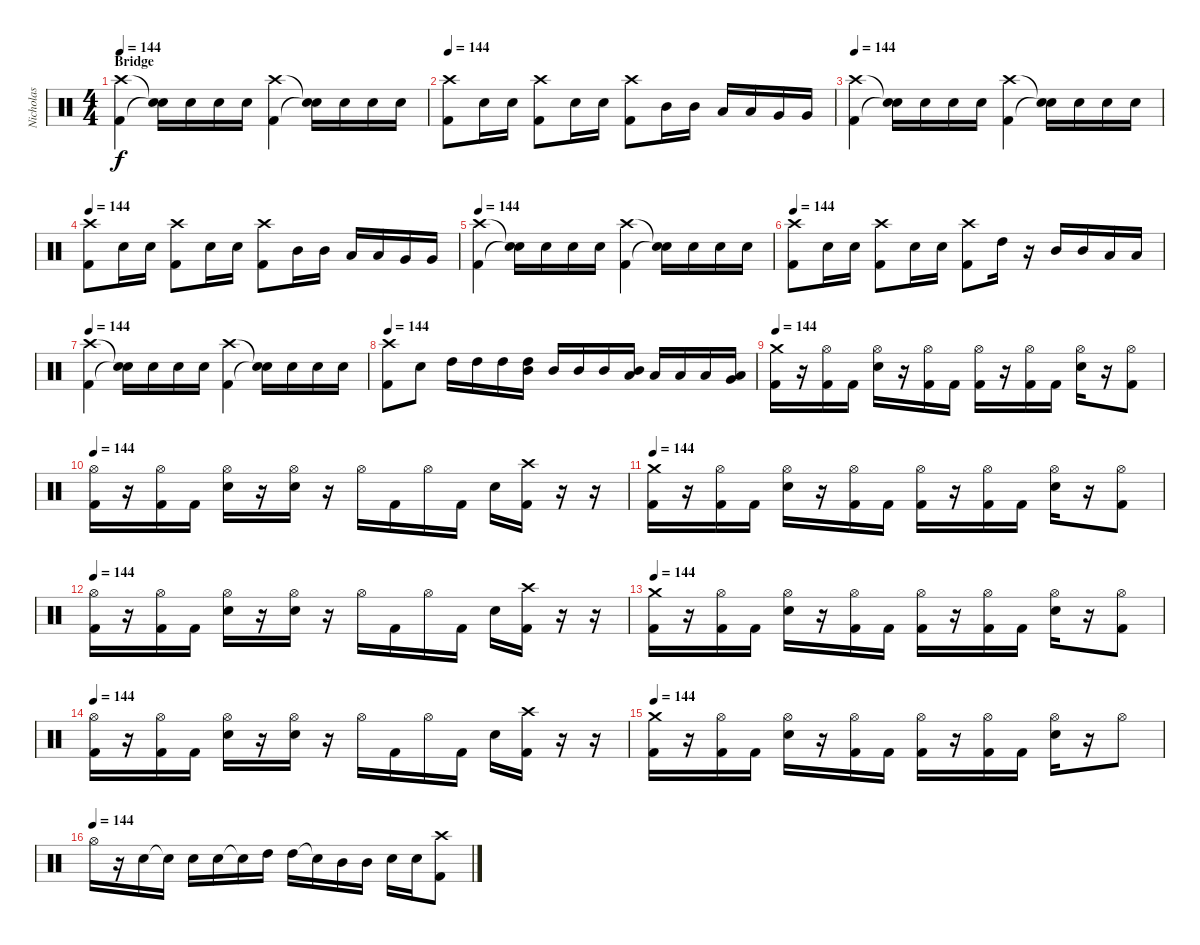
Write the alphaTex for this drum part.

\track ("Nicholas" "Nicholas") {instrument percussion}
\staff {score}
\articulation defaults
\ts (4 4)
\section ("" "Bridge")
\tempo 144
\clef neutral
\ks c
("Crash high (hit)" "Kick (hit) 2").4{dy f} ("Snare (hit)"{t} "Snare (hit)"{t}).16 "Snare (hit) 2".16 "Snare (hit) 2".16 "Snare (hit) 2".16 ("Crash high (hit)" "Kick (hit) 2").4 ("Snare (hit)"{t} "Snare (hit)"{t}).16 "Snare (hit) 2".16 "Snare (hit) 2".16 "Snare (hit) 2".16 |
\tempo 144
("Crash high (hit)" "Kick (hit) 2").8 "Snare (hit) 2".16 "Snare (hit) 2".16 ("Crash high (hit)" "Kick (hit) 2").8 "Snare (hit) 2".16 "Snare (hit) 2".16 ("Crash high (hit)" "Kick (hit) 2").8 "Mid Tom (hit)".16 "Mid Tom (hit)".16 "Low Tom (hit)".16 "Low Tom (hit)".16 "Very Low Tom (hit)".16 "Very Low Tom (hit)".16 |
\tempo 144
("Crash high (hit)" "Kick (hit) 2").4 ("Snare (hit)"{t} "Snare (hit)"{t}).16 "Snare (hit) 2".16 "Snare (hit) 2".16 "Snare (hit) 2".16 ("Crash high (hit)" "Kick (hit) 2").4 ("Snare (hit)"{t} "Snare (hit)"{t}).16 "Snare (hit) 2".16 "Snare (hit) 2".16 "Snare (hit) 2".16 |
\tempo 144
("Crash high (hit)" "Kick (hit) 2").8 "Snare (hit) 2".16 "Snare (hit) 2".16 ("Crash high (hit)" "Kick (hit) 2").8 "Snare (hit) 2".16 "Snare (hit) 2".16 ("Crash high (hit)" "Kick (hit) 2").8 "Mid Tom (hit)".16 "Mid Tom (hit)".16 "Low Tom (hit)".16 "Low Tom (hit)".16 "Very Low Tom (hit)".16 "Very Low Tom (hit)".16 |
\tempo 144
("Crash high (hit)" "Kick (hit) 2").4 ("Snare (hit)"{t} "Snare (hit)"{t}).16 "Snare (hit) 2".16 "Snare (hit) 2".16 "Snare (hit) 2".16 ("Crash high (hit)" "Kick (hit) 2").4 ("Snare (hit)"{t} "Snare (hit)"{t}).16 "Snare (hit) 2".16 "Snare (hit) 2".16 "Snare (hit) 2".16 |
\tempo 144
("Crash high (hit)" "Kick (hit) 2").8 "Snare (hit) 2".16 "Snare (hit) 2".16 ("Crash high (hit)" "Kick (hit) 2").8 "Snare (hit) 2".16 "Snare (hit) 2".16 ("Crash high (hit)" "Kick (hit) 2").8 "High Tom (hit)".16 r.16 "Mid Tom (hit)".16 "Mid Tom (hit)".16 "Low Tom (hit)".16 "Low Tom (hit)".16 |
\tempo 144
("Crash high (hit)" "Kick (hit) 2").4 ("Snare (hit)"{t} "Snare (hit)"{t}).16 "Snare (hit) 2".16 "Snare (hit) 2".16 "Snare (hit) 2".16 ("Crash high (hit)" "Kick (hit) 2").4 ("Snare (hit)"{t} "Snare (hit)"{t}).16 "Snare (hit) 2".16 "Snare (hit) 2".16 "Snare (hit) 2".16 |
\tempo 144
("Crash high (hit)" "Kick (hit) 2").8 "Snare (hit) 2".8 "High Tom (hit)".16 "High Tom (hit)".16 "High Tom (hit)".16 ("High Tom (hit)" "Mid Tom (hit)").16 "Mid Tom (hit)".16 "Mid Tom (hit)".16 "Mid Tom (hit)".16 ("Mid Tom (hit)" "Low Tom (hit)").16 "Low Tom (hit)".16 "Low Tom (hit)".16 "Low Tom (hit)".16 ("Low Tom (hit)" "Very Low Tom (hit)").16 |
\tempo 144
("Crash medium (hit)" "Kick (hit) 2").16 r.16 ("Hi-Hat (open)" "Kick (hit) 2").16 "Kick (hit) 2".16 ("Hi-Hat (open)" "Snare (hit) 2").16 r.16 ("Hi-Hat (open)" "Kick (hit) 2").16 "Kick (hit) 2".16 ("Hi-Hat (open)" "Kick (hit) 2").16 r.16 ("Hi-Hat (open)" "Kick (hit) 2").16 "Kick (hit) 2".16 ("Hi-Hat (open)" "Snare (hit) 2").16 r.16 ("Hi-Hat (open)" "Kick (hit) 2").8 |
\tempo 144
("Hi-Hat (open)" "Kick (hit) 2").16 r.16 ("Hi-Hat (open)" "Kick (hit) 2").16 "Kick (hit) 2".16 ("Hi-Hat (open)" "Snare (hit) 2").16 r.16 ("Hi-Hat (open)" "Snare (hit) 2").16 r.16 "Hi-Hat (open)".16 "Kick (hit) 2".16 "Hi-Hat (open)".16 "Kick (hit) 2".16 "Snare (hit) 2".16 ("Crash high (hit)" "Kick (hit) 2").16 r.16 r.16 |
\tempo 144
("Crash medium (hit)" "Kick (hit) 2").16 r.16 ("Hi-Hat (open)" "Kick (hit) 2").16 "Kick (hit) 2".16 ("Hi-Hat (open)" "Snare (hit) 2").16 r.16 ("Hi-Hat (open)" "Kick (hit) 2").16 "Kick (hit) 2".16 ("Hi-Hat (open)" "Kick (hit) 2").16 r.16 ("Hi-Hat (open)" "Kick (hit) 2").16 "Kick (hit) 2".16 ("Hi-Hat (open)" "Snare (hit) 2").16 r.16 ("Hi-Hat (open)" "Kick (hit) 2").8 |
\tempo 144
("Hi-Hat (open)" "Kick (hit) 2").16 r.16 ("Hi-Hat (open)" "Kick (hit) 2").16 "Kick (hit) 2".16 ("Hi-Hat (open)" "Snare (hit) 2").16 r.16 ("Hi-Hat (open)" "Snare (hit) 2").16 r.16 "Hi-Hat (open)".16 "Kick (hit) 2".16 "Hi-Hat (open)".16 "Kick (hit) 2".16 "Snare (hit) 2".16 ("Crash high (hit)" "Kick (hit) 2").16 r.16 r.16 |
\tempo 144
("Crash medium (hit)" "Kick (hit) 2").16 r.16 ("Hi-Hat (open)" "Kick (hit) 2").16 "Kick (hit) 2".16 ("Hi-Hat (open)" "Snare (hit) 2").16 r.16 ("Hi-Hat (open)" "Kick (hit) 2").16 "Kick (hit) 2".16 ("Hi-Hat (open)" "Kick (hit) 2").16 r.16 ("Hi-Hat (open)" "Kick (hit) 2").16 "Kick (hit) 2".16 ("Hi-Hat (open)" "Snare (hit) 2").16 r.16 ("Hi-Hat (open)" "Kick (hit) 2").8 |
\tempo 144
("Hi-Hat (open)" "Kick (hit) 2").16 r.16 ("Hi-Hat (open)" "Kick (hit) 2").16 "Kick (hit) 2".16 ("Hi-Hat (open)" "Snare (hit) 2").16 r.16 ("Hi-Hat (open)" "Snare (hit) 2").16 r.16 "Hi-Hat (open)".16 "Kick (hit) 2".16 "Hi-Hat (open)".16 "Kick (hit) 2".16 "Snare (hit) 2".16 ("Crash high (hit)" "Kick (hit) 2").16 r.16 r.16 |
\tempo 144
("Crash medium (hit)" "Kick (hit) 2").16 r.16 ("Hi-Hat (open)" "Kick (hit) 2").16 "Kick (hit) 2".16 ("Hi-Hat (open)" "Snare (hit) 2").16 r.16 ("Hi-Hat (open)" "Kick (hit) 2").16 "Kick (hit) 2".16 ("Hi-Hat (open)" "Kick (hit) 2").16 r.16 ("Hi-Hat (open)" "Kick (hit) 2").16 "Kick (hit) 2".16 ("Hi-Hat (open)" "Snare (hit) 2").16 r.16 "Hi-Hat (open)".8 |
\tempo (144)
"Hi-Hat (open)".16 r.16 "Snare (hit) 2".16 "Snare (hit)"{t}.16 "Snare (hit) 2".16 "Snare (hit) 2".16 "Snare (hit)"{t}.16 "High Tom (hit)".16 "High Tom (hit)".16 "Snare (hit)"{t}.16 "Mid Tom (hit)".16 "Mid Tom (hit)".16 "Snare (hit) 2".16 "Snare (hit) 2".16 ("Crash high (hit)" "Kick (hit) 2").8
